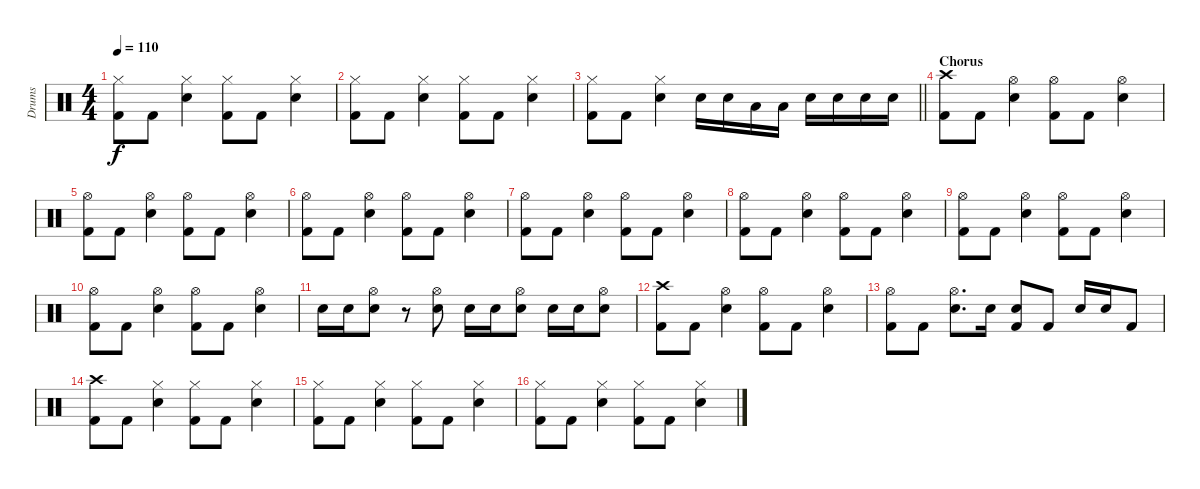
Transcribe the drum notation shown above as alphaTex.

\track ("Drums" "Drums") {instrument percussion}
\staff {score}
\articulation defaults
\ts (4 4)
\tempo 110
\clef neutral
\ks c
("Hi-Hat (closed)" "Kick (hit) 2").8{dy f} "Kick (hit) 2".8 ("Hi-Hat (closed)" "Snare (hit) 2").4 ("Hi-Hat (closed)" "Kick (hit) 2").8 "Kick (hit) 2".8 ("Hi-Hat (closed)" "Snare (hit) 2").4 |
("Hi-Hat (closed)" "Kick (hit) 2").8 "Kick (hit) 2".8 ("Hi-Hat (closed)" "Snare (hit) 2").4 ("Hi-Hat (closed)" "Kick (hit) 2").8 "Kick (hit) 2".8 ("Hi-Hat (closed)" "Snare (hit) 2").4 |
\barLineRight lightlight
("Hi-Hat (closed)" "Kick (hit) 2").8 "Kick (hit) 2".8 ("Hi-Hat (closed)" "Snare (hit) 2").4 "Snare (hit) 2".16 "Snare (hit) 2".16 "Low Floor Tom (hit)".16 "Low Floor Tom (hit)".16 "Snare (hit) 2".16 "Snare (hit) 2".16 "Snare (hit) 2".16 "Snare (hit) 2".16 |
\section ("" "Chorus")
("Crash high (hit)" "Kick (hit) 2").8 "Kick (hit) 2".8 ("Hi-Hat (open)" "Snare (hit) 2").4 ("Hi-Hat (open)" "Kick (hit) 2").8 "Kick (hit) 2".8 ("Hi-Hat (open)" "Snare (hit) 2").4 |
("Hi-Hat (open)" "Kick (hit) 2").8 "Kick (hit) 2".8 ("Hi-Hat (open)" "Snare (hit) 2").4 ("Hi-Hat (open)" "Kick (hit) 2").8 "Kick (hit) 2".8 ("Hi-Hat (open)" "Snare (hit) 2").4 |
("Hi-Hat (open)" "Kick (hit) 2").8 "Kick (hit) 2".8 ("Hi-Hat (open)" "Snare (hit) 2").4 ("Hi-Hat (open)" "Kick (hit) 2").8 "Kick (hit) 2".8 ("Hi-Hat (open)" "Snare (hit) 2").4 |
("Hi-Hat (open)" "Kick (hit) 2").8 "Kick (hit) 2".8 ("Hi-Hat (open)" "Snare (hit) 2").4 ("Hi-Hat (open)" "Kick (hit) 2").8 "Kick (hit) 2".8 ("Hi-Hat (open)" "Snare (hit) 2").4 |
("Hi-Hat (open)" "Kick (hit) 2").8 "Kick (hit) 2".8 ("Hi-Hat (open)" "Snare (hit) 2").4 ("Hi-Hat (open)" "Kick (hit) 2").8 "Kick (hit) 2".8 ("Hi-Hat (open)" "Snare (hit) 2").4 |
("Hi-Hat (open)" "Kick (hit) 2").8 "Kick (hit) 2".8 ("Hi-Hat (open)" "Snare (hit) 2").4 ("Hi-Hat (open)" "Kick (hit) 2").8 "Kick (hit) 2".8 ("Hi-Hat (open)" "Snare (hit) 2").4 |
("Hi-Hat (open)" "Kick (hit) 2").8 "Kick (hit) 2".8 ("Hi-Hat (open)" "Snare (hit) 2").4 ("Hi-Hat (open)" "Kick (hit) 2").8 "Kick (hit) 2".8 ("Hi-Hat (open)" "Snare (hit) 2").4 |
"Snare (hit) 2".16 "Snare (hit) 2".16 ("Hi-Hat (open)" "Snare (hit) 2").8 r.8 ("Hi-Hat (open)" "Snare (hit) 2").8 "Snare (hit) 2".16 "Snare (hit) 2".16 ("Hi-Hat (open)" "Snare (hit) 2").8 "Snare (hit) 2".16 "Snare (hit) 2".16 ("Hi-Hat (open)" "Snare (hit) 2").8 |
("Crash high (hit)" "Kick (hit) 2").8 "Kick (hit) 2".8 ("Hi-Hat (open)" "Snare (hit) 2").4 ("Hi-Hat (open)" "Kick (hit) 2").8 "Kick (hit) 2".8 ("Hi-Hat (open)" "Snare (hit) 2").4 |
("Hi-Hat (open)" "Kick (hit) 2").8 "Kick (hit) 2".8 ("Hi-Hat (open)" "Snare (hit) 2").8{d} "Snare (hit) 2".16 ("Snare (hit) 2" "Kick (hit) 2").8 "Kick (hit) 2".8 "Snare (hit) 2".16 "Snare (hit) 2".16 "Kick (hit) 2".8 |
("Crash high (hit)" "Kick (hit) 2").8 "Kick (hit) 2".8 ("Hi-Hat (closed)" "Snare (hit) 2").4 ("Hi-Hat (closed)" "Kick (hit) 2").8 "Kick (hit) 2".8 ("Hi-Hat (closed)" "Snare (hit) 2").4 |
("Hi-Hat (closed)" "Kick (hit) 2").8 "Kick (hit) 2".8 ("Hi-Hat (closed)" "Snare (hit) 2").4 ("Hi-Hat (closed)" "Kick (hit) 2").8 "Kick (hit) 2".8 ("Hi-Hat (closed)" "Snare (hit) 2").4 |
("Hi-Hat (closed)" "Kick (hit) 2").8 "Kick (hit) 2".8 ("Hi-Hat (closed)" "Snare (hit) 2").4 ("Hi-Hat (closed)" "Kick (hit) 2").8 "Kick (hit) 2".8 ("Hi-Hat (closed)" "Snare (hit) 2").4
